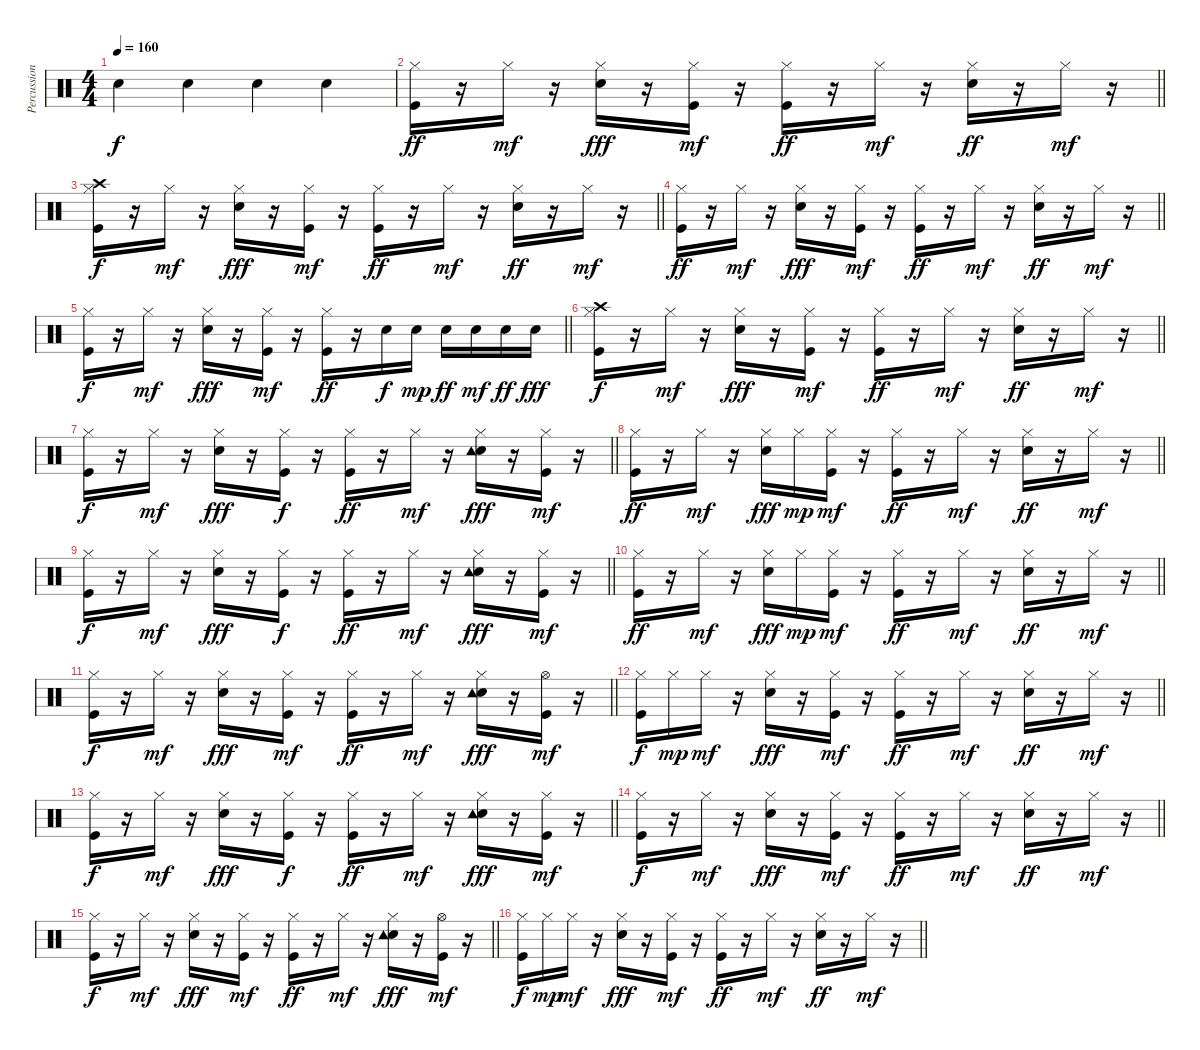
\track ("Percussions" "Percussion") {instrument percussion}
\staff {score}
\articulation defaults
\ts (4 4)
\tempo 160
\clef neutral
\ks c "Electric Snare (hit)".4{dy f} "Electric Snare (hit)".4 "Electric Snare (hit)".4 "Electric Snare (hit)".4
|
\barLineRight lightlight
("Kick (hit)" "Hi-Hat (closed)").16{dy ff} r.16 "Hi-Hat (closed)".16{dy mf} r.16 ("Snare (hit) 2" "Hi-Hat (closed)").16{dy fff} r.16 ("Kick (hit)" "Hi-Hat (closed)").16{dy mf} r.16 ("Kick (hit)" "Hi-Hat (closed)").16{dy ff} r.16 "Hi-Hat (closed)".16{dy mf} r.16 ("Snare (hit) 2" "Hi-Hat (closed)").16{dy ff} r.16 "Hi-Hat (closed)".16{dy mf} r.16 |
\barLineRight lightlight
("Kick (hit)" "Hi-Hat (closed)" "Crash high (hit)").16{dy f} r.16 "Hi-Hat (closed)".16{dy mf} r.16 ("Snare (hit) 2" "Hi-Hat (closed)").16{dy fff} r.16 ("Kick (hit)" "Hi-Hat (closed)").16{dy mf} r.16 ("Kick (hit)" "Hi-Hat (closed)").16{dy ff} r.16 "Hi-Hat (closed)".16{dy mf} r.16 ("Snare (hit) 2" "Hi-Hat (closed)").16{dy ff} r.16 "Hi-Hat (closed)".16{dy mf} r.16 |
\barLineRight lightlight
("Kick (hit)" "Hi-Hat (closed)").16{dy ff} r.16 "Hi-Hat (closed)".16{dy mf} r.16 ("Snare (hit) 2" "Hi-Hat (closed)").16{dy fff} r.16 ("Kick (hit)" "Hi-Hat (closed)").16{dy mf} r.16 ("Kick (hit)" "Hi-Hat (closed)").16{dy ff} r.16 "Hi-Hat (closed)".16{dy mf} r.16 ("Snare (hit) 2" "Hi-Hat (closed)").16{dy ff} r.16 "Hi-Hat (closed)".16{dy mf} r.16 |
\barLineRight lightlight
("Kick (hit)" "Hi-Hat (closed)").16{dy f} r.16 "Hi-Hat (closed)".16{dy mf} r.16 ("Snare (hit) 2" "Hi-Hat (closed)").16{dy fff} r.16 ("Kick (hit)" "Hi-Hat (closed)").16{dy mf} r.16 ("Kick (hit)" "Hi-Hat (closed)").16{dy ff} r.16 "Snare (hit) 2".16{dy f} "Snare (hit) 2".16{dy mp} "Snare (hit) 2".16{dy ff} "Snare (hit) 2".16{dy mf} "Snare (hit) 2".16{dy ff} "Snare (hit) 2".16{dy fff} |
\barLineRight lightlight
("Kick (hit)" "Hi-Hat (closed)" "Crash high (hit)").16{dy f} r.16 "Hi-Hat (closed)".16{dy mf} r.16 ("Snare (hit) 2" "Hi-Hat (closed)").16{dy fff} r.16 ("Kick (hit)" "Hi-Hat (closed)").16{dy mf} r.16 ("Kick (hit)" "Hi-Hat (closed)").16{dy ff} r.16 "Hi-Hat (closed)".16{dy mf} r.16 ("Snare (hit) 2" "Hi-Hat (closed)").16{dy ff} r.16 "Hi-Hat (closed)".16{dy mf} r.16 |
\barLineRight lightlight
("Kick (hit)" "Hi-Hat (closed)").16{dy f} r.16 "Hi-Hat (closed)".16{dy mf} r.16 ("Snare (hit) 2" "Hi-Hat (closed)").16{dy fff} r.16 ("Kick (hit)" "Hi-Hat (closed)").16{dy f} r.16 ("Kick (hit)" "Hi-Hat (closed)").16{dy ff} r.16 "Hi-Hat (closed)".16{dy mf} r.16 ("Snare (hit) 2" "Hi-Hat (closed)" "Tambourine (hit)").16{dy fff} r.16 ("Kick (hit)" "Hi-Hat (closed)").16{dy mf} r.16 |
\barLineRight lightlight
("Kick (hit)" "Hi-Hat (closed)").16{dy ff} r.16 "Hi-Hat (closed)".16{dy mf} r.16 ("Snare (hit) 2" "Hi-Hat (closed)").16{dy fff} "Hi-Hat (closed)".16{dy mp} ("Kick (hit)" "Hi-Hat (closed)").16{dy mf} r.16 ("Kick (hit)" "Hi-Hat (closed)").16{dy ff} r.16 "Hi-Hat (closed)".16{dy mf} r.16 ("Snare (hit) 2" "Hi-Hat (closed)").16{dy ff} r.16 "Hi-Hat (closed)".16{dy mf} r.16 |
\barLineRight lightlight
("Kick (hit)" "Hi-Hat (closed)").16{dy f} r.16 "Hi-Hat (closed)".16{dy mf} r.16 ("Snare (hit) 2" "Hi-Hat (closed)").16{dy fff} r.16 ("Kick (hit)" "Hi-Hat (closed)").16{dy f} r.16 ("Kick (hit)" "Hi-Hat (closed)").16{dy ff} r.16 "Hi-Hat (closed)".16{dy mf} r.16 ("Snare (hit) 2" "Hi-Hat (closed)" "Tambourine (hit)").16{dy fff} r.16 ("Kick (hit)" "Hi-Hat (closed)").16{dy mf} r.16 |
\barLineRight lightlight
("Kick (hit)" "Hi-Hat (closed)").16{dy ff} r.16 "Hi-Hat (closed)".16{dy mf} r.16 ("Snare (hit) 2" "Hi-Hat (closed)").16{dy fff} "Hi-Hat (closed)".16{dy mp} ("Kick (hit)" "Hi-Hat (closed)").16{dy mf} r.16 ("Kick (hit)" "Hi-Hat (closed)").16{dy ff} r.16 "Hi-Hat (closed)".16{dy mf} r.16 ("Snare (hit) 2" "Hi-Hat (closed)").16{dy ff} r.16 "Hi-Hat (closed)".16{dy mf} r.16 |
\barLineRight lightlight
("Kick (hit)" "Hi-Hat (closed)").16{dy f} r.16 "Hi-Hat (closed)".16{dy mf} r.16 ("Snare (hit) 2" "Hi-Hat (closed)").16{dy fff} r.16 ("Kick (hit)" "Hi-Hat (closed)").16{dy mf} r.16 ("Kick (hit)" "Hi-Hat (closed)").16{dy ff} r.16 "Hi-Hat (closed)".16{dy mf} r.16 ("Snare (hit) 2" "Hi-Hat (closed)" "Tambourine (hit)").16{dy fff} r.16 ("Kick (hit)" "Hi-Hat (open)").16{dy mf} r.16 |
\barLineRight lightlight
("Kick (hit)" "Hi-Hat (closed)").16{dy f} "Hi-Hat (closed)".16{dy mp} "Hi-Hat (closed)".16{dy mf} r.16 ("Snare (hit) 2" "Hi-Hat (closed)").16{dy fff} r.16 ("Kick (hit)" "Hi-Hat (closed)").16{dy mf} r.16 ("Kick (hit)" "Hi-Hat (closed)").16{dy ff} r.16 "Hi-Hat (closed)".16{dy mf} r.16 ("Snare (hit) 2" "Hi-Hat (closed)").16{dy ff} r.16 "Hi-Hat (closed)".16{dy mf} r.16 |
\barLineRight lightlight
("Kick (hit)" "Hi-Hat (closed)").16{dy f} r.16 "Hi-Hat (closed)".16{dy mf} r.16 ("Snare (hit) 2" "Hi-Hat (closed)").16{dy fff} r.16 ("Kick (hit)" "Hi-Hat (closed)").16{dy f} r.16 ("Kick (hit)" "Hi-Hat (closed)").16{dy ff} r.16 "Hi-Hat (closed)".16{dy mf} r.16 ("Snare (hit) 2" "Hi-Hat (closed)" "Tambourine (hit)").16{dy fff} r.16 ("Kick (hit)" "Hi-Hat (closed)").16{dy mf} r.16 |
\barLineRight lightlight
("Kick (hit)" "Hi-Hat (closed)").16{dy f} r.16 "Hi-Hat (closed)".16{dy mf} r.16 ("Snare (hit) 2" "Hi-Hat (closed)").16{dy fff} r.16 ("Kick (hit)" "Hi-Hat (closed)").16{dy mf} r.16 ("Kick (hit)" "Hi-Hat (closed)").16{dy ff} r.16 "Hi-Hat (closed)".16{dy mf} r.16 ("Snare (hit) 2" "Hi-Hat (closed)").16{dy ff} r.16 "Hi-Hat (closed)".16{dy mf} r.16 |
\barLineRight lightlight
("Kick (hit)" "Hi-Hat (closed)").16{dy f} r.16 "Hi-Hat (closed)".16{dy mf} r.16 ("Snare (hit) 2" "Hi-Hat (closed)").16{dy fff} r.16 ("Kick (hit)" "Hi-Hat (closed)").16{dy mf} r.16 ("Kick (hit)" "Hi-Hat (closed)").16{dy ff} r.16 "Hi-Hat (closed)".16{dy mf} r.16 ("Snare (hit) 2" "Hi-Hat (closed)" "Tambourine (hit)").16{dy fff} r.16 ("Kick (hit)" "Hi-Hat (open)").16{dy mf} r.16 |
\barLineRight lightlight
("Kick (hit)" "Hi-Hat (closed)").16{dy f} "Hi-Hat (closed)".16{dy mp} "Hi-Hat (closed)".16{dy mf} r.16 ("Snare (hit) 2" "Hi-Hat (closed)").16{dy fff} r.16 ("Kick (hit)" "Hi-Hat (closed)").16{dy mf} r.16 ("Kick (hit)" "Hi-Hat (closed)").16{dy ff} r.16 "Hi-Hat (closed)".16{dy mf} r.16 ("Snare (hit) 2" "Hi-Hat (closed)").16{dy ff} r.16 "Hi-Hat (closed)".16{dy mf} r.16
